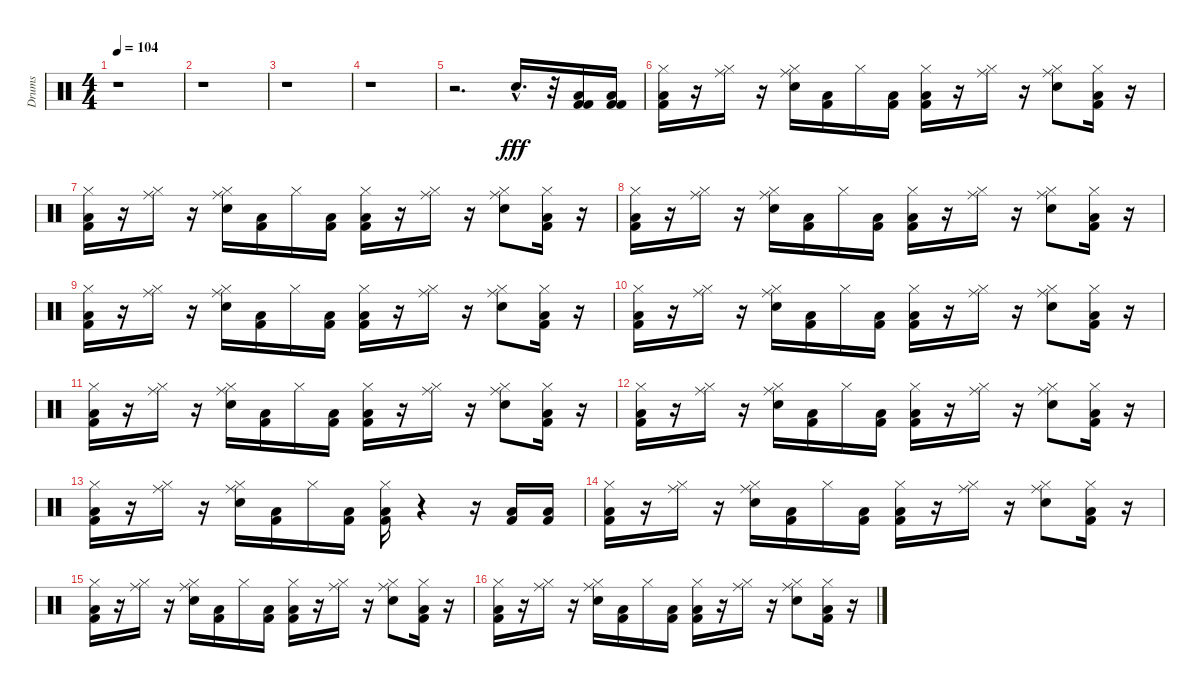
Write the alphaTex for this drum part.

\track ("Drums" "Drums") {instrument percussion}
\staff {score}
\articulation defaults
\ts (4 4)
\tempo 104
\clef neutral
\ks c
r.1{dy fff} |
r.1 |
r.1 |
r.1 |
r.2{d} "Electric Snare (hit)"{hac}.16{d} r.32 ("Kick (hit) 2" "Kick (hit) 2" "Low Floor Tom (hit)").16 ("Kick (hit) 2" "Kick (hit) 2" "Low Floor Tom (hit)").16 |
("Kick (hit) 2" "Hi-Hat (closed)" "Low Floor Tom (hit)").16 r.16 ("Hi-Hat (closed)" "Ride (middle)").16 r.16 ("Electric Snare (hit)" "Ride (middle)" "Hi-Hat (closed)").16 ("Kick (hit) 2" "Low Floor Tom (hit)").16 "Hi-Hat (closed)".16 ("Kick (hit) 2" "Low Floor Tom (hit)").16 ("Kick (hit) 2" "Hi-Hat (closed)" "Low Floor Tom (hit)").16 r.16 ("Ride (middle)" "Hi-Hat (closed)").16 r.16 ("Hi-Hat (closed)" "Ride (middle)" "Electric Snare (hit)").8 ("Low Floor Tom (hit)" "Kick (hit) 2" "Hi-Hat (closed)").16 r.16 |
("Low Floor Tom (hit)" "Hi-Hat (closed)" "Kick (hit) 2").16 r.16 ("Hi-Hat (closed)" "Ride (middle)").16 r.16 ("Ride (middle)" "Electric Snare (hit)" "Hi-Hat (closed)").16 ("Kick (hit) 2" "Low Floor Tom (hit)").16 "Hi-Hat (closed)".16 ("Low Floor Tom (hit)" "Kick (hit) 2").16 ("Low Floor Tom (hit)" "Kick (hit) 2" "Hi-Hat (closed)").16 r.16 ("Ride (middle)" "Hi-Hat (closed)").16 r.16 ("Hi-Hat (closed)" "Electric Snare (hit)" "Ride (middle)").8 ("Hi-Hat (closed)" "Kick (hit) 2" "Low Floor Tom (hit)").16 r.16 |
("Kick (hit) 2" "Hi-Hat (closed)" "Low Floor Tom (hit)").16 r.16 ("Hi-Hat (closed)" "Ride (middle)").16 r.16 ("Hi-Hat (closed)" "Electric Snare (hit)" "Ride (middle)").16 ("Kick (hit) 2" "Low Floor Tom (hit)").16 "Hi-Hat (closed)".16 ("Kick (hit) 2" "Low Floor Tom (hit)").16 ("Kick (hit) 2" "Low Floor Tom (hit)" "Hi-Hat (closed)").16 r.16 ("Hi-Hat (closed)" "Ride (middle)").16 r.16 ("Ride (middle)" "Hi-Hat (closed)" "Electric Snare (hit)").8 ("Low Floor Tom (hit)" "Hi-Hat (closed)" "Kick (hit) 2").16 r.16 |
("Low Floor Tom (hit)" "Hi-Hat (closed)" "Kick (hit) 2").16 r.16 ("Hi-Hat (closed)" "Ride (middle)").16 r.16 ("Hi-Hat (closed)" "Electric Snare (hit)" "Ride (middle)").16 ("Low Floor Tom (hit)" "Kick (hit) 2").16 "Hi-Hat (closed)".16 ("Low Floor Tom (hit)" "Kick (hit) 2").16 ("Low Floor Tom (hit)" "Hi-Hat (closed)" "Kick (hit) 2").16 r.16 ("Ride (middle)" "Hi-Hat (closed)").16 r.16 ("Electric Snare (hit)" "Ride (middle)" "Hi-Hat (closed)").8 ("Low Floor Tom (hit)" "Hi-Hat (closed)" "Kick (hit) 2").16 r.16 |
("Low Floor Tom (hit)" "Kick (hit) 2" "Hi-Hat (closed)").16 r.16 ("Hi-Hat (closed)" "Ride (middle)").16 r.16 ("Hi-Hat (closed)" "Ride (middle)" "Electric Snare (hit)").16 ("Low Floor Tom (hit)" "Kick (hit) 2").16 "Hi-Hat (closed)".16 ("Kick (hit) 2" "Low Floor Tom (hit)").16 ("Hi-Hat (closed)" "Low Floor Tom (hit)" "Kick (hit) 2").16 r.16 ("Ride (middle)" "Hi-Hat (closed)").16 r.16 ("Hi-Hat (closed)" "Electric Snare (hit)" "Ride (middle)").8 ("Kick (hit) 2" "Low Floor Tom (hit)" "Hi-Hat (closed)").16 r.16 |
("Low Floor Tom (hit)" "Hi-Hat (closed)" "Kick (hit) 2").16 r.16 ("Hi-Hat (closed)" "Ride (middle)").16 r.16 ("Hi-Hat (closed)" "Electric Snare (hit)" "Ride (middle)").16 ("Low Floor Tom (hit)" "Kick (hit) 2").16 "Hi-Hat (closed)".16 ("Low Floor Tom (hit)" "Kick (hit) 2").16 ("Hi-Hat (closed)" "Kick (hit) 2" "Low Floor Tom (hit)").16 r.16 ("Ride (middle)" "Hi-Hat (closed)").16 r.16 ("Electric Snare (hit)" "Ride (middle)" "Hi-Hat (closed)").8 ("Low Floor Tom (hit)" "Hi-Hat (closed)" "Kick (hit) 2").16 r.16 |
("Low Floor Tom (hit)" "Kick (hit) 2" "Hi-Hat (closed)").16 r.16 ("Hi-Hat (closed)" "Ride (middle)").16 r.16 ("Electric Snare (hit)" "Hi-Hat (closed)" "Ride (middle)").16 ("Kick (hit) 2" "Low Floor Tom (hit)").16 "Hi-Hat (closed)".16 ("Low Floor Tom (hit)" "Kick (hit) 2").16 ("Kick (hit) 2" "Hi-Hat (closed)" "Low Floor Tom (hit)").16 r.16 ("Hi-Hat (closed)" "Ride (middle)").16 r.16 ("Electric Snare (hit)" "Hi-Hat (closed)" "Ride (middle)").8 ("Low Floor Tom (hit)" "Hi-Hat (closed)" "Kick (hit) 2").16 r.16 |
("Hi-Hat (closed)" "Kick (hit) 2" "Low Floor Tom (hit)").16 r.16 ("Hi-Hat (closed)" "Ride (middle)").16 r.16 ("Electric Snare (hit)" "Hi-Hat (closed)" "Ride (middle)").16 ("Low Floor Tom (hit)" "Kick (hit) 2").16 "Hi-Hat (closed)".16 ("Low Floor Tom (hit)" "Kick (hit) 2").16 ("Kick (hit) 2" "Low Floor Tom (hit)" "Hi-Hat (closed)").16 r.4 r.16 ("Low Floor Tom (hit)" "Kick (hit) 2").16 ("Low Floor Tom (hit)" "Kick (hit) 2").16 |
("Hi-Hat (closed)" "Kick (hit) 2" "Low Floor Tom (hit)").16 r.16 ("Ride (middle)" "Hi-Hat (closed)").16 r.16 ("Electric Snare (hit)" "Hi-Hat (closed)" "Ride (middle)").16 ("Low Floor Tom (hit)" "Kick (hit) 2").16 "Hi-Hat (closed)".16 ("Low Floor Tom (hit)" "Kick (hit) 2").16 ("Hi-Hat (closed)" "Kick (hit) 2" "Low Floor Tom (hit)").16 r.16 ("Hi-Hat (closed)" "Ride (middle)").16 r.16 ("Ride (middle)" "Hi-Hat (closed)" "Electric Snare (hit)").8 ("Kick (hit) 2" "Low Floor Tom (hit)" "Hi-Hat (closed)").16 r.16 |
("Low Floor Tom (hit)" "Hi-Hat (closed)" "Kick (hit) 2").16 r.16 ("Hi-Hat (closed)" "Ride (middle)").16 r.16 ("Electric Snare (hit)" "Ride (middle)" "Hi-Hat (closed)").16 ("Low Floor Tom (hit)" "Kick (hit) 2").16 "Hi-Hat (closed)".16 ("Low Floor Tom (hit)" "Kick (hit) 2").16 ("Low Floor Tom (hit)" "Kick (hit) 2" "Hi-Hat (closed)").16 r.16 ("Hi-Hat (closed)" "Ride (middle)").16 r.16 ("Hi-Hat (closed)" "Electric Snare (hit)" "Ride (middle)").8 ("Kick (hit) 2" "Low Floor Tom (hit)" "Hi-Hat (closed)").16 r.16 |
("Low Floor Tom (hit)" "Kick (hit) 2" "Hi-Hat (closed)").16 r.16 ("Hi-Hat (closed)" "Ride (middle)").16 r.16 ("Hi-Hat (closed)" "Electric Snare (hit)" "Ride (middle)").16 ("Low Floor Tom (hit)" "Kick (hit) 2").16 "Hi-Hat (closed)".16 ("Kick (hit) 2" "Low Floor Tom (hit)").16 ("Kick (hit) 2" "Low Floor Tom (hit)" "Hi-Hat (closed)").16 r.16 ("Hi-Hat (closed)" "Ride (middle)").16 r.16 ("Hi-Hat (closed)" "Ride (middle)" "Electric Snare (hit)").8 ("Low Floor Tom (hit)" "Kick (hit) 2" "Hi-Hat (closed)").16 r.16
